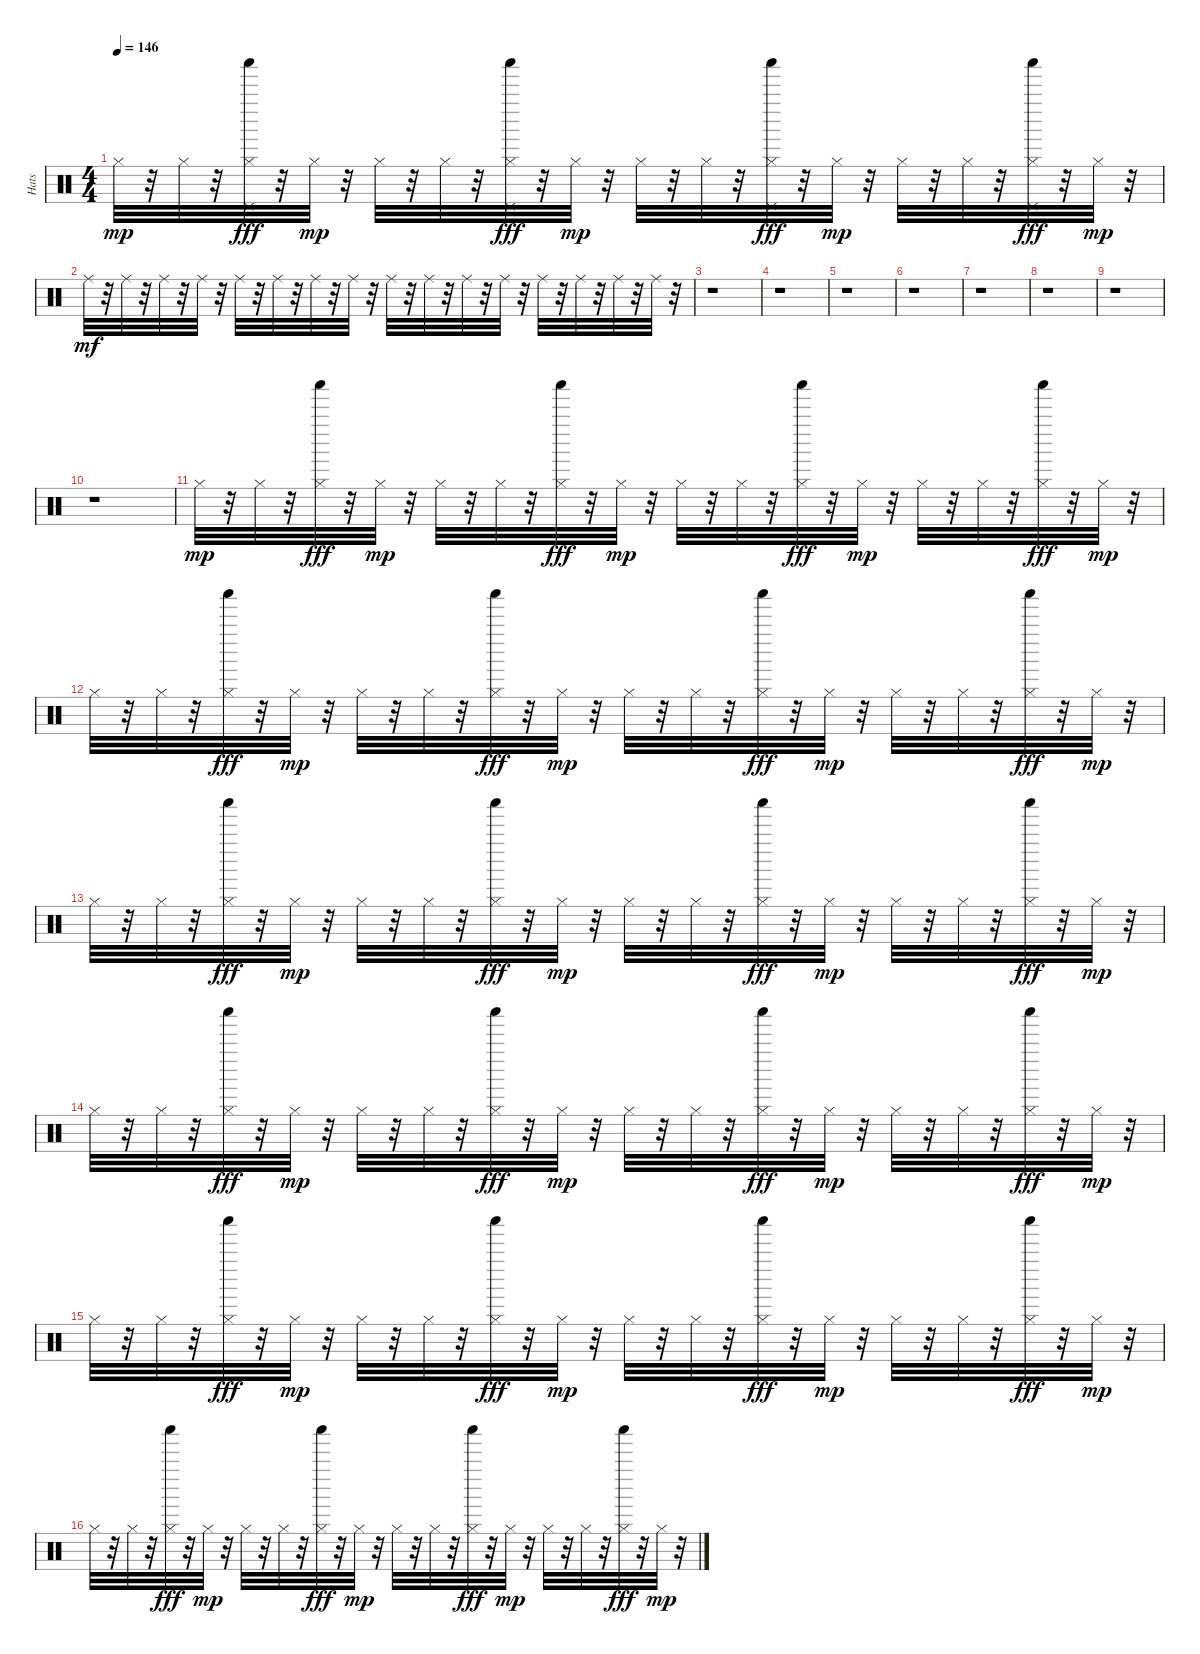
\track ("Hats" "Hats") {instrument percussion}
\staff {score}
\articulation defaults
\ts (4 4)
\tempo 146
\clef neutral
\ks c "Hi-Hat (closed)".32{dy mp}
r.32 "Hi-Hat (closed)".32 r.32 ("Hi-Hat (closed)" "Pedal Hi-Hat (hit)" "Shaker (hit)").32{dy fff} r.32 "Hi-Hat (closed)".32{dy mp} r.32 "Hi-Hat (closed)".32 r.32 "Hi-Hat (closed)".32 r.32 ("Hi-Hat (closed)" "Pedal Hi-Hat (hit)" "Shaker (hit)").32{dy fff} r.32 "Hi-Hat (closed)".32{dy mp} r.32 "Hi-Hat (closed)".32 r.32 "Hi-Hat (closed)".32 r.32 ("Hi-Hat (closed)" "Pedal Hi-Hat (hit)" "Shaker (hit)").32{dy fff} r.32 "Hi-Hat (closed)".32{dy mp} r.32 "Hi-Hat (closed)".32 r.32 "Hi-Hat (closed)".32 r.32 ("Hi-Hat (closed)" "Pedal Hi-Hat (hit)" "Shaker (hit)").32{dy fff} r.32 "Hi-Hat (closed)".32{dy mp} r.32 |
"Ride (middle)".32{dy mf} r.32 "Ride (middle)".32 r.32 "Ride (middle)".32 r.32 "Ride (middle)".32 r.32 "Ride (middle)".32 r.32 "Ride (middle)".32 r.32 "Ride (middle)".32 r.32 "Ride (middle)".32 r.32 "Ride (middle)".32 r.32 "Ride (middle)".32 r.32 "Ride (middle)".32 r.32 "Ride (middle)".32 r.32 "Ride (middle)".32 r.32 "Ride (middle)".32 r.32 "Ride (middle)".32 r.32 "Ride (middle)".32 r.32 |
r.1 |
r.1 |
r.1 |
r.1 |
r.1 |
r.1 |
r.1 |
r.1 |
"Hi-Hat (closed)".32{dy mp} r.32 "Hi-Hat (closed)".32 r.32 ("Hi-Hat (closed)" "Shaker (hit)").32{dy fff} r.32 "Hi-Hat (closed)".32{dy mp} r.32 "Hi-Hat (closed)".32 r.32 "Hi-Hat (closed)".32 r.32 ("Hi-Hat (closed)" "Shaker (hit)").32{dy fff} r.32 "Hi-Hat (closed)".32{dy mp} r.32 "Hi-Hat (closed)".32 r.32 "Hi-Hat (closed)".32 r.32 ("Hi-Hat (closed)" "Shaker (hit)").32{dy fff} r.32 "Hi-Hat (closed)".32{dy mp} r.32 "Hi-Hat (closed)".32 r.32 "Hi-Hat (closed)".32 r.32 ("Hi-Hat (closed)" "Shaker (hit)").32{dy fff} r.32 "Hi-Hat (closed)".32{dy mp} r.32 |
"Hi-Hat (closed)".32 r.32 "Hi-Hat (closed)".32 r.32 ("Hi-Hat (closed)" "Shaker (hit)").32{dy fff} r.32 "Hi-Hat (closed)".32{dy mp} r.32 "Hi-Hat (closed)".32 r.32 "Hi-Hat (closed)".32 r.32 ("Hi-Hat (closed)" "Shaker (hit)").32{dy fff} r.32 "Hi-Hat (closed)".32{dy mp} r.32 "Hi-Hat (closed)".32 r.32 "Hi-Hat (closed)".32 r.32 ("Hi-Hat (closed)" "Shaker (hit)").32{dy fff} r.32 "Hi-Hat (closed)".32{dy mp} r.32 "Hi-Hat (closed)".32 r.32 "Hi-Hat (closed)".32 r.32 ("Hi-Hat (closed)" "Shaker (hit)").32{dy fff} r.32 "Hi-Hat (closed)".32{dy mp} r.32 |
"Hi-Hat (closed)".32 r.32 "Hi-Hat (closed)".32 r.32 ("Hi-Hat (closed)" "Shaker (hit)").32{dy fff} r.32 "Hi-Hat (closed)".32{dy mp} r.32 "Hi-Hat (closed)".32 r.32 "Hi-Hat (closed)".32 r.32 ("Hi-Hat (closed)" "Shaker (hit)").32{dy fff} r.32 "Hi-Hat (closed)".32{dy mp} r.32 "Hi-Hat (closed)".32 r.32 "Hi-Hat (closed)".32 r.32 ("Hi-Hat (closed)" "Shaker (hit)").32{dy fff} r.32 "Hi-Hat (closed)".32{dy mp} r.32 "Hi-Hat (closed)".32 r.32 "Hi-Hat (closed)".32 r.32 ("Hi-Hat (closed)" "Shaker (hit)").32{dy fff} r.32 "Hi-Hat (closed)".32{dy mp} r.32 |
"Hi-Hat (closed)".32 r.32 "Hi-Hat (closed)".32 r.32 ("Hi-Hat (closed)" "Shaker (hit)").32{dy fff} r.32 "Hi-Hat (closed)".32{dy mp} r.32 "Hi-Hat (closed)".32 r.32 "Hi-Hat (closed)".32 r.32 ("Hi-Hat (closed)" "Shaker (hit)").32{dy fff} r.32 "Hi-Hat (closed)".32{dy mp} r.32 "Hi-Hat (closed)".32 r.32 "Hi-Hat (closed)".32 r.32 ("Hi-Hat (closed)" "Shaker (hit)").32{dy fff} r.32 "Hi-Hat (closed)".32{dy mp} r.32 "Hi-Hat (closed)".32 r.32 "Hi-Hat (closed)".32 r.32 ("Hi-Hat (closed)" "Shaker (hit)").32{dy fff} r.32 "Hi-Hat (closed)".32{dy mp} r.32 |
"Hi-Hat (closed)".32 r.32 "Hi-Hat (closed)".32 r.32 ("Hi-Hat (closed)" "Shaker (hit)").32{dy fff} r.32 "Hi-Hat (closed)".32{dy mp} r.32 "Hi-Hat (closed)".32 r.32 "Hi-Hat (closed)".32 r.32 ("Hi-Hat (closed)" "Shaker (hit)").32{dy fff} r.32 "Hi-Hat (closed)".32{dy mp} r.32 "Hi-Hat (closed)".32 r.32 "Hi-Hat (closed)".32 r.32 ("Hi-Hat (closed)" "Shaker (hit)").32{dy fff} r.32 "Hi-Hat (closed)".32{dy mp} r.32 "Hi-Hat (closed)".32 r.32 "Hi-Hat (closed)".32 r.32 ("Hi-Hat (closed)" "Shaker (hit)").32{dy fff} r.32 "Hi-Hat (closed)".32{dy mp} r.32 |
"Hi-Hat (closed)".32 r.32 "Hi-Hat (closed)".32 r.32 ("Hi-Hat (closed)" "Shaker (hit)").32{dy fff} r.32 "Hi-Hat (closed)".32{dy mp} r.32 "Hi-Hat (closed)".32 r.32 "Hi-Hat (closed)".32 r.32 ("Hi-Hat (closed)" "Shaker (hit)").32{dy fff} r.32 "Hi-Hat (closed)".32{dy mp} r.32 "Hi-Hat (closed)".32 r.32 "Hi-Hat (closed)".32 r.32 ("Hi-Hat (closed)" "Shaker (hit)").32{dy fff} r.32 "Hi-Hat (closed)".32{dy mp} r.32 "Hi-Hat (closed)".32 r.32 "Hi-Hat (closed)".32 r.32 ("Hi-Hat (closed)" "Shaker (hit)").32{dy fff} r.32 "Hi-Hat (closed)".32{dy mp} r.32
